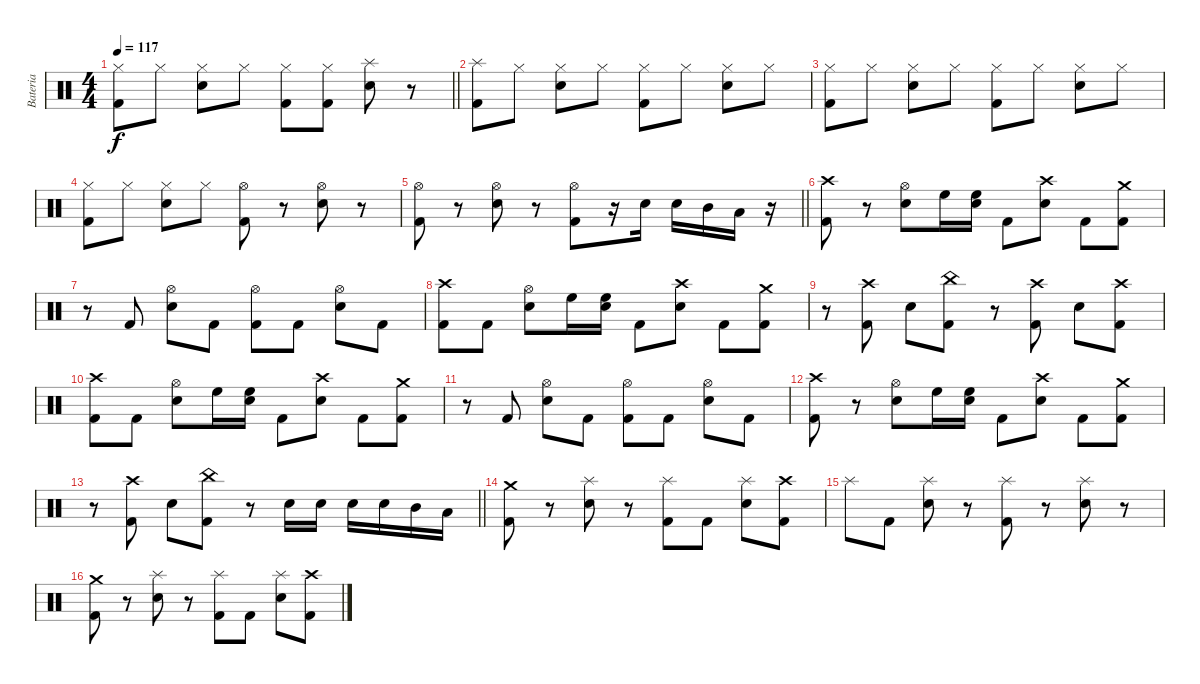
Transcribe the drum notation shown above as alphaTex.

\track ("Bateria" "Bateria") {instrument percussion}
\staff
\articulation defaults
\ts (4 4)
\tempo 117
\clef neutral
\barLineRight lightlight
\ks c
("Hi-Hat (closed)" "Kick (hit) 2").8{dy f} "Hi-Hat (closed)".8 ("Hi-Hat (closed)" "Snare (hit) 2").8 "Hi-Hat (closed)".8 ("Hi-Hat (closed)" "Kick (hit) 2").8 ("Hi-Hat (closed)" "Kick (hit) 2").8 ("Splash (hit)" "Snare (hit) 2").8 r.8 |
("Splash (hit)" "Kick (hit) 2").8 "Hi-Hat (closed)".8 ("Hi-Hat (closed)" "Snare (hit) 2").8 "Hi-Hat (closed)".8 ("Hi-Hat (closed)" "Kick (hit) 2").8 "Hi-Hat (closed)".8 ("Hi-Hat (closed)" "Snare (hit) 2").8 "Hi-Hat (closed)".8 |
("Hi-Hat (closed)" "Kick (hit) 2").8 "Hi-Hat (closed)".8 ("Hi-Hat (closed)" "Snare (hit) 2").8 "Hi-Hat (closed)".8 ("Hi-Hat (closed)" "Kick (hit) 2").8 "Hi-Hat (closed)".8 ("Hi-Hat (closed)" "Snare (hit) 2").8 "Hi-Hat (closed)".8 |
("Hi-Hat (closed)" "Kick (hit) 2").8 "Hi-Hat (closed)".8 ("Hi-Hat (closed)" "Snare (hit) 2").8 "Hi-Hat (closed)".8 ("Hi-Hat (open)" "Kick (hit) 2").8 r.8 ("Hi-Hat (open)" "Snare (hit) 2").8 r.8 |
\barLineRight lightlight
("Hi-Hat (open)" "Kick (hit) 2").8 r.8 ("Hi-Hat (open)" "Snare (hit) 2").8 r.8 ("Hi-Hat (open)" "Kick (hit) 2").8 r.16 "Snare (hit) 2".16 "Snare (hit) 2".16 "Mid Tom (hit)".16 "Low Tom (hit)".16 r.16 |
("Crash high (hit)" "Kick (hit) 2").8 r.8 ("Hi-Hat (open)" "Snare (hit) 2").8 "High Floor Tom (hit)".16 ("High Floor Tom (hit)" "Snare (hit) 2").16 "Kick (hit) 2".8 ("Crash high (hit)" "Snare (hit) 2").8 "Kick (hit) 2".8 ("Crash medium (hit)" "Kick (hit) 2").8 |
r.8 "Kick (hit) 2".8 ("Hi-Hat (open)" "Snare (hit) 2").8 "Kick (hit) 2".8 ("Hi-Hat (open)" "Kick (hit) 2").8 "Kick (hit) 2".8 ("Hi-Hat (open)" "Snare (hit) 2").8 "Kick (hit) 2".8 |
("Crash high (hit)" "Kick (hit) 2").8 "Kick (hit) 2".8 ("Hi-Hat (open)" "Snare (hit) 2").8 "High Floor Tom (hit)".16 ("High Floor Tom (hit)" "Snare (hit) 2").16 "Kick (hit) 2".8 ("Crash high (hit)" "Snare (hit) 2").8 "Kick (hit) 2".8 ("Crash medium (hit)" "Kick (hit) 2").8 |
r.8 ("Crash high (hit)" "Kick (hit) 2").8 "Snare (hit) 2".8 ("China (hit)" "Kick (hit) 2").8 r.8 ("Crash high (hit)" "Kick (hit) 2").8 "Snare (hit) 2".8 ("Crash high (hit)" "Kick (hit) 2").8 |
("Crash high (hit)" "Kick (hit) 2").8 "Kick (hit) 2".8 ("Hi-Hat (open)" "Snare (hit) 2").8 "High Floor Tom (hit)".16 ("High Floor Tom (hit)" "Snare (hit) 2").16 "Kick (hit) 2".8 ("Crash high (hit)" "Snare (hit) 2").8 "Kick (hit) 2".8 ("Crash medium (hit)" "Kick (hit) 2").8 |
r.8 "Kick (hit) 2".8 ("Hi-Hat (open)" "Snare (hit) 2").8 "Kick (hit) 2".8 ("Hi-Hat (open)" "Kick (hit) 2").8 "Kick (hit) 2".8 ("Hi-Hat (open)" "Snare (hit) 2").8 "Kick (hit) 2".8 |
("Crash high (hit)" "Kick (hit) 2").8 r.8 ("Hi-Hat (open)" "Snare (hit) 2").8 "High Floor Tom (hit)".16 ("High Floor Tom (hit)" "Snare (hit) 2").16 "Kick (hit) 2".8 ("Crash high (hit)" "Snare (hit) 2").8 "Kick (hit) 2".8 ("Crash medium (hit)" "Kick (hit) 2").8 |
\barLineRight lightlight
r.8 ("Crash high (hit)" "Kick (hit) 2").8 "Snare (hit) 2".8 ("China (hit)" "Kick (hit) 2").8 r.8 "Snare (hit) 2".16 "Snare (hit) 2".16 "Snare (hit) 2".16 "Snare (hit) 2".16 "Mid Tom (hit)".16 "Low Tom (hit)".16 |
("Crash medium (hit)" "Kick (hit) 2").8 r.8 ("Splash (hit)" "Snare (hit) 2").8 r.8 ("Splash (hit)" "Kick (hit) 2").8 "Kick (hit) 2".8 ("Splash (hit)" "Snare (hit) 2").8 ("Crash high (hit)" "Kick (hit) 2").8 |
"Splash (hit)".8 "Kick (hit) 2".8 ("Splash (hit)" "Snare (hit) 2").8 r.8 ("Splash (hit)" "Kick (hit) 2").8 r.8 ("Splash (hit)" "Snare (hit) 2").8 r.8 |
("Crash medium (hit)" "Kick (hit) 2").8 r.8 ("Splash (hit)" "Snare (hit) 2").8 r.8 ("Splash (hit)" "Kick (hit) 2").8 "Kick (hit) 2".8 ("Splash (hit)" "Snare (hit) 2").8 ("Crash high (hit)" "Kick (hit) 2").8
